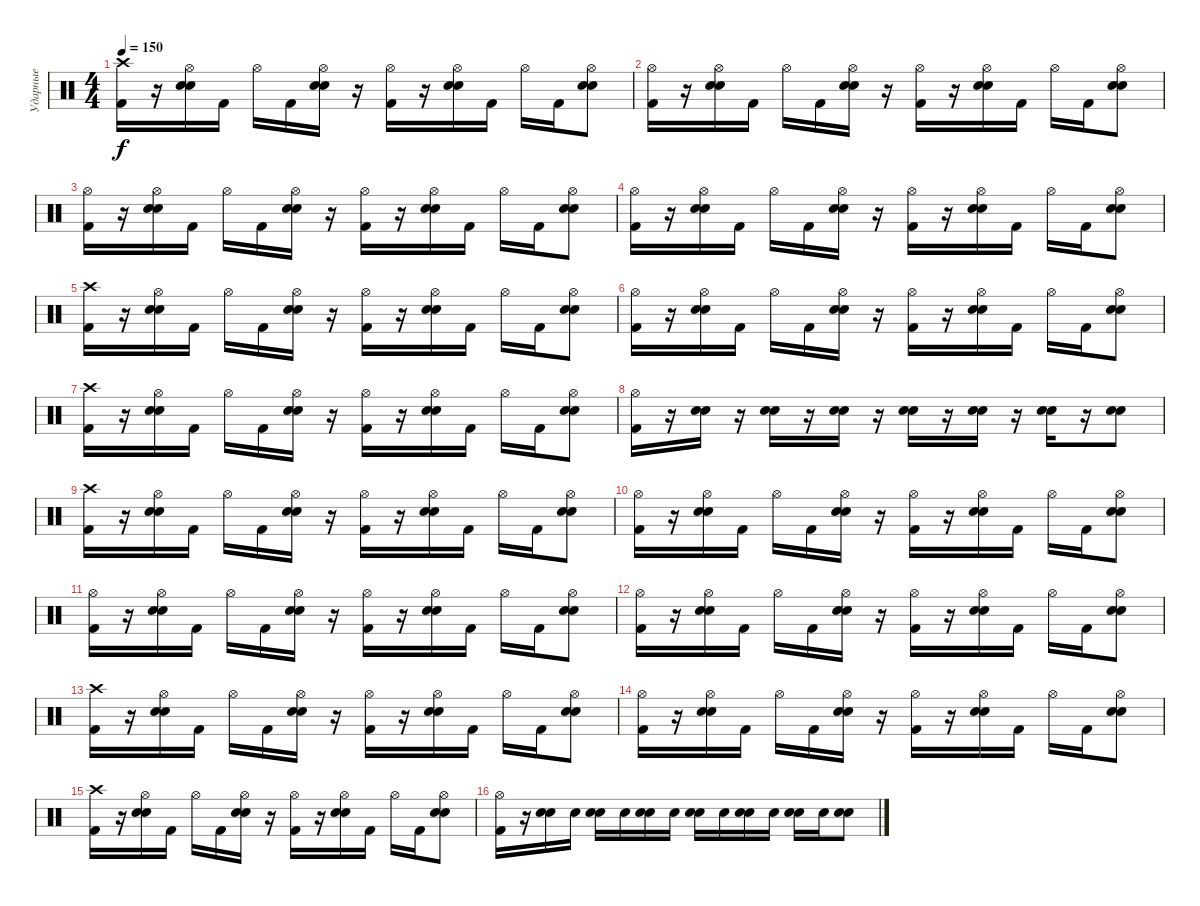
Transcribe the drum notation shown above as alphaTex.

\track ("Ударные" "Ударные") {instrument percussion}
\staff {score}
\articulation defaults
\ts (4 4)
\tempo 150
\clef neutral
\ks c
("Crash high (hit)" "Kick (hit) 2").16{dy f} r.16 ("Hi-Hat (open)" "Electric Snare (hit)" "Snare (hit) 2").16 "Kick (hit) 2".16 "Hi-Hat (open)".16 "Kick (hit) 2".16 ("Hi-Hat (open)" "Electric Snare (hit)" "Snare (hit) 2").16 r.16 ("Hi-Hat (open)" "Kick (hit) 2").16 r.16 ("Hi-Hat (open)" "Electric Snare (hit)" "Snare (hit) 2").16 "Kick (hit) 2".16 "Hi-Hat (open)".16 "Kick (hit) 2".16 ("Hi-Hat (open)" "Electric Snare (hit)" "Snare (hit) 2").8 |
("Hi-Hat (open)" "Kick (hit) 2").16 r.16 ("Hi-Hat (open)" "Electric Snare (hit)" "Snare (hit) 2").16 "Kick (hit) 2".16 "Hi-Hat (open)".16 "Kick (hit) 2".16 ("Hi-Hat (open)" "Electric Snare (hit)" "Snare (hit) 2").16 r.16 ("Hi-Hat (open)" "Kick (hit) 2").16 r.16 ("Hi-Hat (open)" "Electric Snare (hit)" "Snare (hit) 2").16 "Kick (hit) 2".16 "Hi-Hat (open)".16 "Kick (hit) 2".16 ("Hi-Hat (open)" "Electric Snare (hit)" "Snare (hit) 2").8 |
("Hi-Hat (open)" "Kick (hit) 2").16 r.16 ("Hi-Hat (open)" "Electric Snare (hit)" "Snare (hit) 2").16 "Kick (hit) 2".16 "Hi-Hat (open)".16 "Kick (hit) 2".16 ("Hi-Hat (open)" "Electric Snare (hit)" "Snare (hit) 2").16 r.16 ("Hi-Hat (open)" "Kick (hit) 2").16 r.16 ("Hi-Hat (open)" "Electric Snare (hit)" "Snare (hit) 2").16 "Kick (hit) 2".16 "Hi-Hat (open)".16 "Kick (hit) 2".16 ("Hi-Hat (open)" "Electric Snare (hit)" "Snare (hit) 2").8 |
("Hi-Hat (open)" "Kick (hit) 2").16 r.16 ("Hi-Hat (open)" "Electric Snare (hit)" "Snare (hit) 2").16 "Kick (hit) 2".16 "Hi-Hat (open)".16 "Kick (hit) 2".16 ("Hi-Hat (open)" "Electric Snare (hit)" "Snare (hit) 2").16 r.16 ("Hi-Hat (open)" "Kick (hit) 2").16 r.16 ("Hi-Hat (open)" "Electric Snare (hit)" "Snare (hit) 2").16 "Kick (hit) 2".16 "Hi-Hat (open)".16 "Kick (hit) 2".16 ("Hi-Hat (open)" "Electric Snare (hit)" "Snare (hit) 2").8 |
("Crash high (hit)" "Kick (hit) 2").16 r.16 ("Hi-Hat (open)" "Electric Snare (hit)" "Snare (hit) 2").16 "Kick (hit) 2".16 "Hi-Hat (open)".16 "Kick (hit) 2".16 ("Hi-Hat (open)" "Electric Snare (hit)" "Snare (hit) 2").16 r.16 ("Hi-Hat (open)" "Kick (hit) 2").16 r.16 ("Hi-Hat (open)" "Electric Snare (hit)" "Snare (hit) 2").16 "Kick (hit) 2".16 "Hi-Hat (open)".16 "Kick (hit) 2".16 ("Hi-Hat (open)" "Electric Snare (hit)" "Snare (hit) 2").8 |
("Hi-Hat (open)" "Kick (hit) 2").16 r.16 ("Hi-Hat (open)" "Electric Snare (hit)" "Snare (hit) 2").16 "Kick (hit) 2".16 "Hi-Hat (open)".16 "Kick (hit) 2".16 ("Hi-Hat (open)" "Electric Snare (hit)" "Snare (hit) 2").16 r.16 ("Hi-Hat (open)" "Kick (hit) 2").16 r.16 ("Hi-Hat (open)" "Electric Snare (hit)" "Snare (hit) 2").16 "Kick (hit) 2".16 "Hi-Hat (open)".16 "Kick (hit) 2".16 ("Hi-Hat (open)" "Electric Snare (hit)" "Snare (hit) 2").8 |
("Crash high (hit)" "Kick (hit) 2").16 r.16 ("Hi-Hat (open)" "Electric Snare (hit)" "Snare (hit) 2").16 "Kick (hit) 2".16 "Hi-Hat (open)".16 "Kick (hit) 2".16 ("Hi-Hat (open)" "Electric Snare (hit)" "Snare (hit) 2").16 r.16 ("Hi-Hat (open)" "Kick (hit) 2").16 r.16 ("Hi-Hat (open)" "Electric Snare (hit)" "Snare (hit) 2").16 "Kick (hit) 2".16 "Hi-Hat (open)".16 "Kick (hit) 2".16 ("Hi-Hat (open)" "Electric Snare (hit)" "Snare (hit) 2").8 |
("Hi-Hat (open)" "Kick (hit) 2").16 r.16 ("Electric Snare (hit)" "Snare (hit) 2").16 r.16 ("Electric Snare (hit)" "Snare (hit) 2").16 r.16 ("Electric Snare (hit)" "Snare (hit) 2").16 r.16 ("Electric Snare (hit)" "Snare (hit) 2").16 r.16 ("Electric Snare (hit)" "Snare (hit) 2").16 r.16 ("Electric Snare (hit)" "Snare (hit) 2").16 r.16 ("Electric Snare (hit)" "Snare (hit) 2").8 |
("Crash high (hit)" "Kick (hit) 2").16 r.16 ("Hi-Hat (open)" "Electric Snare (hit)" "Snare (hit) 2").16 "Kick (hit) 2".16 "Hi-Hat (open)".16 "Kick (hit) 2".16 ("Hi-Hat (open)" "Electric Snare (hit)" "Snare (hit) 2").16 r.16 ("Hi-Hat (open)" "Kick (hit) 2").16 r.16 ("Hi-Hat (open)" "Electric Snare (hit)" "Snare (hit) 2").16 "Kick (hit) 2".16 "Hi-Hat (open)".16 "Kick (hit) 2".16 ("Hi-Hat (open)" "Electric Snare (hit)" "Snare (hit) 2").8 |
("Hi-Hat (open)" "Kick (hit) 2").16 r.16 ("Hi-Hat (open)" "Electric Snare (hit)" "Snare (hit) 2").16 "Kick (hit) 2".16 "Hi-Hat (open)".16 "Kick (hit) 2".16 ("Hi-Hat (open)" "Electric Snare (hit)" "Snare (hit) 2").16 r.16 ("Hi-Hat (open)" "Kick (hit) 2").16 r.16 ("Hi-Hat (open)" "Electric Snare (hit)" "Snare (hit) 2").16 "Kick (hit) 2".16 "Hi-Hat (open)".16 "Kick (hit) 2".16 ("Hi-Hat (open)" "Electric Snare (hit)" "Snare (hit) 2").8 |
("Hi-Hat (open)" "Kick (hit) 2").16 r.16 ("Hi-Hat (open)" "Electric Snare (hit)" "Snare (hit) 2").16 "Kick (hit) 2".16 "Hi-Hat (open)".16 "Kick (hit) 2".16 ("Hi-Hat (open)" "Electric Snare (hit)" "Snare (hit) 2").16 r.16 ("Hi-Hat (open)" "Kick (hit) 2").16 r.16 ("Hi-Hat (open)" "Electric Snare (hit)" "Snare (hit) 2").16 "Kick (hit) 2".16 "Hi-Hat (open)".16 "Kick (hit) 2".16 ("Hi-Hat (open)" "Electric Snare (hit)" "Snare (hit) 2").8 |
("Hi-Hat (open)" "Kick (hit) 2").16 r.16 ("Hi-Hat (open)" "Electric Snare (hit)" "Snare (hit) 2").16 "Kick (hit) 2".16 "Hi-Hat (open)".16 "Kick (hit) 2".16 ("Hi-Hat (open)" "Electric Snare (hit)" "Snare (hit) 2").16 r.16 ("Hi-Hat (open)" "Kick (hit) 2").16 r.16 ("Hi-Hat (open)" "Electric Snare (hit)" "Snare (hit) 2").16 "Kick (hit) 2".16 "Hi-Hat (open)".16 "Kick (hit) 2".16 ("Hi-Hat (open)" "Electric Snare (hit)" "Snare (hit) 2").8 |
("Crash high (hit)" "Kick (hit) 2").16 r.16 ("Hi-Hat (open)" "Electric Snare (hit)" "Snare (hit) 2").16 "Kick (hit) 2".16 "Hi-Hat (open)".16 "Kick (hit) 2".16 ("Hi-Hat (open)" "Electric Snare (hit)" "Snare (hit) 2").16 r.16 ("Hi-Hat (open)" "Kick (hit) 2").16 r.16 ("Hi-Hat (open)" "Electric Snare (hit)" "Snare (hit) 2").16 "Kick (hit) 2".16 "Hi-Hat (open)".16 "Kick (hit) 2".16 ("Hi-Hat (open)" "Electric Snare (hit)" "Snare (hit) 2").8 |
("Hi-Hat (open)" "Kick (hit) 2").16 r.16 ("Hi-Hat (open)" "Electric Snare (hit)" "Snare (hit) 2").16 "Kick (hit) 2".16 "Hi-Hat (open)".16 "Kick (hit) 2".16 ("Hi-Hat (open)" "Electric Snare (hit)" "Snare (hit) 2").16 r.16 ("Hi-Hat (open)" "Kick (hit) 2").16 r.16 ("Hi-Hat (open)" "Electric Snare (hit)" "Snare (hit) 2").16 "Kick (hit) 2".16 "Hi-Hat (open)".16 "Kick (hit) 2".16 ("Hi-Hat (open)" "Electric Snare (hit)" "Snare (hit) 2").8 |
("Crash high (hit)" "Kick (hit) 2").16 r.16 ("Hi-Hat (open)" "Electric Snare (hit)" "Snare (hit) 2").16 "Kick (hit) 2".16 "Hi-Hat (open)".16 "Kick (hit) 2".16 ("Hi-Hat (open)" "Electric Snare (hit)" "Snare (hit) 2").16 r.16 ("Hi-Hat (open)" "Kick (hit) 2").16 r.16 ("Hi-Hat (open)" "Electric Snare (hit)" "Snare (hit) 2").16 "Kick (hit) 2".16 "Hi-Hat (open)".16 "Kick (hit) 2".16 ("Hi-Hat (open)" "Electric Snare (hit)" "Snare (hit) 2").8 |
("Hi-Hat (open)" "Kick (hit) 2").16 r.16 ("Electric Snare (hit)" "Snare (hit) 2").16 "Electric Snare (hit)".16 ("Electric Snare (hit)" "Snare (hit) 2").16 "Electric Snare (hit)".16 ("Electric Snare (hit)" "Snare (hit) 2").16 "Electric Snare (hit)".16 ("Electric Snare (hit)" "Snare (hit) 2").16 "Electric Snare (hit)".16 ("Electric Snare (hit)" "Snare (hit) 2").16 "Electric Snare (hit)".16 ("Electric Snare (hit)" "Snare (hit) 2").16 "Electric Snare (hit)".16 ("Electric Snare (hit)" "Snare (hit) 2").8
